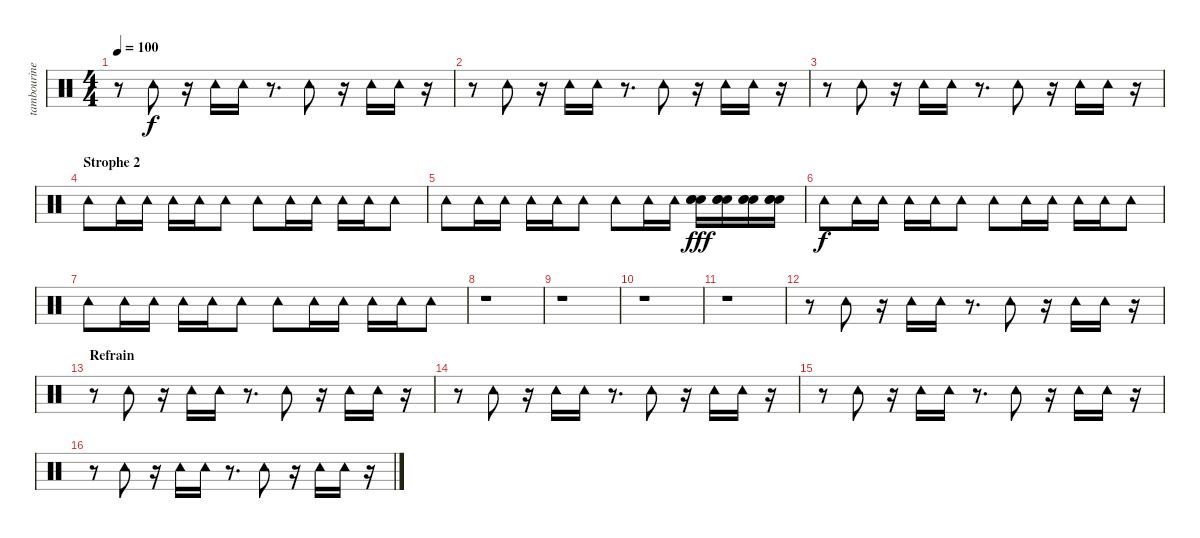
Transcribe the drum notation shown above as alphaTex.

\track ("tambourine (claps)" "tambourine") {instrument percussion}
\staff {score}
\articulation defaults
\ts (4 4)
\tempo 100
\clef neutral
\ks c
r.8{dy f} "Tambourine (hit)".8 r.16 "Tambourine (hit)".16 "Tambourine (hit)".16 r.8{d} "Tambourine (hit)".8 r.16 "Tambourine (hit)".16 "Tambourine (hit)".16 r.16 |
r.8 "Tambourine (hit)".8 r.16 "Tambourine (hit)".16 "Tambourine (hit)".16 r.8{d} "Tambourine (hit)".8 r.16 "Tambourine (hit)".16 "Tambourine (hit)".16 r.16 |
r.8 "Tambourine (hit)".8 r.16 "Tambourine (hit)".16 "Tambourine (hit)".16 r.8{d} "Tambourine (hit)".8 r.16 "Tambourine (hit)".16 "Tambourine (hit)".16 r.16 |
\section ("" "Strophe 2")
"Tambourine (hit)".8 "Tambourine (hit)".16 "Tambourine (hit)".16 "Tambourine (hit)".16 "Tambourine (hit)".16 "Tambourine (hit)".8 "Tambourine (hit)".8 "Tambourine (hit)".16 "Tambourine (hit)".16 "Tambourine (hit)".16 "Tambourine (hit)".16 "Tambourine (hit)".8 |
"Tambourine (hit)".8 "Tambourine (hit)".16 "Tambourine (hit)".16 "Tambourine (hit)".16 "Tambourine (hit)".16 "Tambourine (hit)".8 "Tambourine (hit)".8 "Tambourine (hit)".16 "Tambourine (hit)".16 ("Hand Clap (hit)" "Hand Clap (hit)" "Hand Clap (hit)").16{dy fff} ("Hand Clap (hit)" "Hand Clap (hit)" "Hand Clap (hit)").16 ("Hand Clap (hit)" "Hand Clap (hit)" "Hand Clap (hit)").16 ("Hand Clap (hit)" "Hand Clap (hit)" "Hand Clap (hit)").16 |
"Tambourine (hit)".8{dy f} "Tambourine (hit)".16 "Tambourine (hit)".16 "Tambourine (hit)".16 "Tambourine (hit)".16 "Tambourine (hit)".8 "Tambourine (hit)".8 "Tambourine (hit)".16 "Tambourine (hit)".16 "Tambourine (hit)".16 "Tambourine (hit)".16 "Tambourine (hit)".8 |
"Tambourine (hit)".8 "Tambourine (hit)".16 "Tambourine (hit)".16 "Tambourine (hit)".16 "Tambourine (hit)".16 "Tambourine (hit)".8 "Tambourine (hit)".8 "Tambourine (hit)".16 "Tambourine (hit)".16 "Tambourine (hit)".16 "Tambourine (hit)".16 "Tambourine (hit)".8 |
r.1 |
r.1 |
r.1 |
r.1 |
r.8 "Tambourine (hit)".8 r.16 "Tambourine (hit)".16 "Tambourine (hit)".16 r.8{d} "Tambourine (hit)".8 r.16 "Tambourine (hit)".16 "Tambourine (hit)".16 r.16 |
\section ("" "Refrain")
r.8 "Tambourine (hit)".8 r.16 "Tambourine (hit)".16 "Tambourine (hit)".16 r.8{d} "Tambourine (hit)".8 r.16 "Tambourine (hit)".16 "Tambourine (hit)".16 r.16 |
r.8 "Tambourine (hit)".8 r.16 "Tambourine (hit)".16 "Tambourine (hit)".16 r.8{d} "Tambourine (hit)".8 r.16 "Tambourine (hit)".16 "Tambourine (hit)".16 r.16 |
r.8 "Tambourine (hit)".8 r.16 "Tambourine (hit)".16 "Tambourine (hit)".16 r.8{d} "Tambourine (hit)".8 r.16 "Tambourine (hit)".16 "Tambourine (hit)".16 r.16 |
r.8 "Tambourine (hit)".8 r.16 "Tambourine (hit)".16 "Tambourine (hit)".16 r.8{d} "Tambourine (hit)".8 r.16 "Tambourine (hit)".16 "Tambourine (hit)".16 r.16
